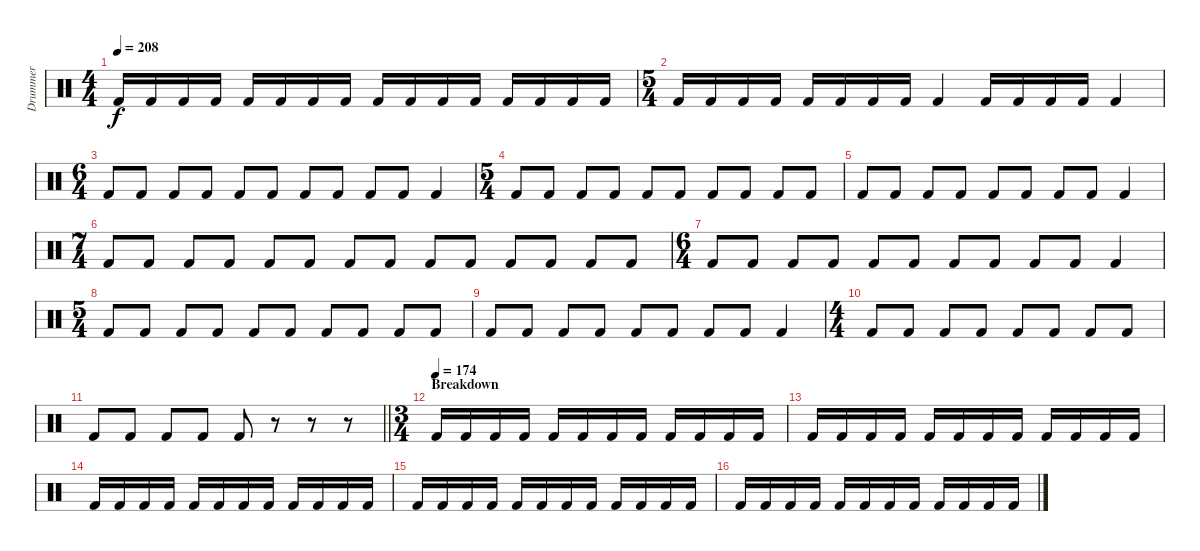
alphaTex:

\track ("Drummer" "Drummer") {instrument percussion}
\staff {score}
\articulation defaults
\ts (4 4)
\tempo 208
\clef neutral
\ks c "Kick (hit) 2".16{dy f} "Kick (hit) 2".16 "Kick (hit) 2".16 "Kick (hit) 2".16 "Kick (hit) 2".16 "Kick (hit) 2".16 "Kick (hit) 2".16 "Kick (hit) 2".16 "Kick (hit) 2".16 "Kick (hit) 2".16 "Kick (hit) 2".16 "Kick (hit) 2".16 "Kick (hit) 2".16 "Kick (hit) 2".16 "Kick (hit) 2".16 "Kick (hit) 2".16
|
\ts (5 4)
"Kick (hit) 2".16 "Kick (hit) 2".16 "Kick (hit) 2".16 "Kick (hit) 2".16 "Kick (hit) 2".16 "Kick (hit) 2".16 "Kick (hit) 2".16 "Kick (hit) 2".16 "Kick (hit) 2".4 "Kick (hit) 2".16 "Kick (hit) 2".16 "Kick (hit) 2".16 "Kick (hit) 2".16 "Kick (hit) 2".4 |
\ts (6 4)
"Kick (hit) 2".8 "Kick (hit) 2".8 "Kick (hit) 2".8 "Kick (hit) 2".8 "Kick (hit) 2".8 "Kick (hit) 2".8 "Kick (hit) 2".8 "Kick (hit) 2".8 "Kick (hit) 2".8 "Kick (hit) 2".8 "Kick (hit) 2".4 |
\ts (5 4)
"Kick (hit) 2".8 "Kick (hit) 2".8 "Kick (hit) 2".8 "Kick (hit) 2".8 "Kick (hit) 2".8 "Kick (hit) 2".8 "Kick (hit) 2".8 "Kick (hit) 2".8 "Kick (hit) 2".8 "Kick (hit) 2".8 |
"Kick (hit) 2".8 "Kick (hit) 2".8 "Kick (hit) 2".8 "Kick (hit) 2".8 "Kick (hit) 2".8 "Kick (hit) 2".8 "Kick (hit) 2".8 "Kick (hit) 2".8 "Kick (hit) 2".4 |
\ts (7 4)
"Kick (hit) 2".8 "Kick (hit) 2".8 "Kick (hit) 2".8 "Kick (hit) 2".8 "Kick (hit) 2".8 "Kick (hit) 2".8 "Kick (hit) 2".8 "Kick (hit) 2".8 "Kick (hit) 2".8 "Kick (hit) 2".8 "Kick (hit) 2".8 "Kick (hit) 2".8 "Kick (hit) 2".8 "Kick (hit) 2".8 |
\ts (6 4)
"Kick (hit) 2".8 "Kick (hit) 2".8 "Kick (hit) 2".8 "Kick (hit) 2".8 "Kick (hit) 2".8 "Kick (hit) 2".8 "Kick (hit) 2".8 "Kick (hit) 2".8 "Kick (hit) 2".8 "Kick (hit) 2".8 "Kick (hit) 2".4 |
\ts (5 4)
"Kick (hit) 2".8 "Kick (hit) 2".8 "Kick (hit) 2".8 "Kick (hit) 2".8 "Kick (hit) 2".8 "Kick (hit) 2".8 "Kick (hit) 2".8 "Kick (hit) 2".8 "Kick (hit) 2".8 "Kick (hit) 2".8 |
"Kick (hit) 2".8 "Kick (hit) 2".8 "Kick (hit) 2".8 "Kick (hit) 2".8 "Kick (hit) 2".8 "Kick (hit) 2".8 "Kick (hit) 2".8 "Kick (hit) 2".8 "Kick (hit) 2".4 |
\ts (4 4)
"Kick (hit) 2".8 "Kick (hit) 2".8 "Kick (hit) 2".8 "Kick (hit) 2".8 "Kick (hit) 2".8 "Kick (hit) 2".8 "Kick (hit) 2".8 "Kick (hit) 2".8 |
\barLineRight lightlight "Kick (hit) 2".8 "Kick (hit) 2".8 "Kick (hit) 2".8 "Kick (hit) 2".8 "Kick (hit) 2".8
r.8 r.8 r.8 |
\ts (3 4)
\section ("" "Breakdown")
\tempo (174)
"Kick (hit) 2".16 "Kick (hit) 2".16 "Kick (hit) 2".16 "Kick (hit) 2".16 "Kick (hit) 2".16 "Kick (hit) 2".16 "Kick (hit) 2".16 "Kick (hit) 2".16 "Kick (hit) 2".16 "Kick (hit) 2".16 "Kick (hit) 2".16 "Kick (hit) 2".16 |
"Kick (hit) 2".16 "Kick (hit) 2".16 "Kick (hit) 2".16 "Kick (hit) 2".16 "Kick (hit) 2".16 "Kick (hit) 2".16 "Kick (hit) 2".16 "Kick (hit) 2".16 "Kick (hit) 2".16 "Kick (hit) 2".16 "Kick (hit) 2".16 "Kick (hit) 2".16 |
"Kick (hit) 2".16 "Kick (hit) 2".16 "Kick (hit) 2".16 "Kick (hit) 2".16 "Kick (hit) 2".16 "Kick (hit) 2".16 "Kick (hit) 2".16 "Kick (hit) 2".16 "Kick (hit) 2".16 "Kick (hit) 2".16 "Kick (hit) 2".16 "Kick (hit) 2".16 |
"Kick (hit) 2".16 "Kick (hit) 2".16 "Kick (hit) 2".16 "Kick (hit) 2".16 "Kick (hit) 2".16 "Kick (hit) 2".16 "Kick (hit) 2".16 "Kick (hit) 2".16 "Kick (hit) 2".16 "Kick (hit) 2".16 "Kick (hit) 2".16 "Kick (hit) 2".16 |
"Kick (hit) 2".16 "Kick (hit) 2".16 "Kick (hit) 2".16 "Kick (hit) 2".16 "Kick (hit) 2".16 "Kick (hit) 2".16 "Kick (hit) 2".16 "Kick (hit) 2".16 "Kick (hit) 2".16 "Kick (hit) 2".16 "Kick (hit) 2".16 "Kick (hit) 2".16
